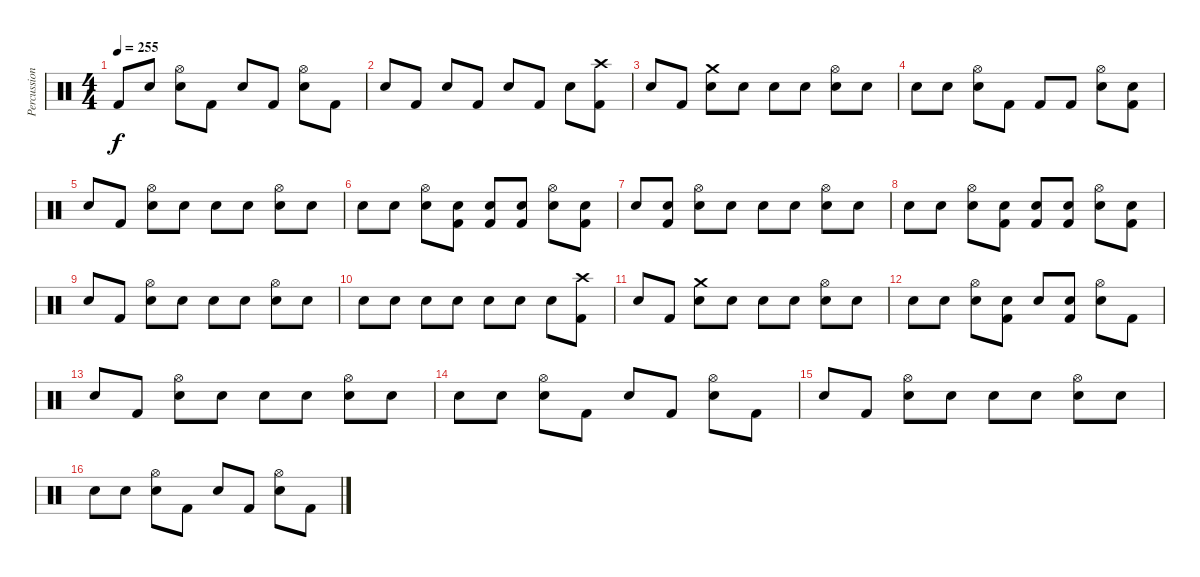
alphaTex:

\track ("Percussion" "Percussion") {instrument percussion}
\staff {score}
\articulation defaults
\ts (4 4)
\tempo 255
\clef neutral
\ks c "Kick (hit) 2".8{dy f} "Snare (hit)"{x}.8
("Snare (hit) 2" "Hi-Hat (open)").8 "Kick (hit) 2".8 "Snare (hit)"{x}.8 "Kick (hit) 2".8 ("Snare (hit) 2" "Hi-Hat (open)").8 "Kick (hit) 2".8 |
"Snare (hit) 2".8 "Kick (hit) 2".8 "Snare (hit) 2".8 "Kick (hit) 2".8 "Snare (hit) 2".8 "Kick (hit) 2".8 "Snare (hit) 2".8 ("Kick (hit) 2" "Crash high (hit)").8 |
"Snare (hit)"{x}.8 "Kick (hit) 2".8 ("Snare (hit) 2" "Crash medium (hit)").8 "Snare (hit)"{x}.8 "Snare (hit)"{x}.8 "Snare (hit)"{x}.8 ("Snare (hit) 2" "Hi-Hat (open)").8 "Snare (hit)"{x}.8 |
"Snare (hit)"{x}.8 "Snare (hit)"{x}.8 ("Snare (hit) 2" "Hi-Hat (open)").8 "Kick (hit) 2".8 "Kick (hit) 2"{x}.8 "Kick (hit) 2".8 ("Snare (hit) 2" "Hi-Hat (open)").8 ("Kick (hit) 2" "Snare (hit)"{x}).8 |
"Snare (hit)"{x}.8 "Kick (hit) 2".8 ("Snare (hit) 2" "Hi-Hat (open)").8 "Snare (hit)"{x}.8 "Snare (hit)"{x}.8 "Snare (hit)"{x}.8 ("Snare (hit) 2" "Hi-Hat (open)").8 "Snare (hit)"{x}.8 |
"Snare (hit)"{x}.8 "Snare (hit)"{x}.8 ("Snare (hit) 2" "Hi-Hat (open)").8 ("Kick (hit) 2" "Snare (hit)"{x}).8 ("Kick (hit) 2"{x} "Snare (hit)"{x}).8 ("Kick (hit) 2" "Snare (hit)"{x}).8 ("Snare (hit) 2" "Hi-Hat (open)").8 ("Kick (hit) 2" "Snare (hit)"{x}).8 |
"Snare (hit)"{x}.8 ("Kick (hit) 2" "Snare (hit)"{x}).8 ("Snare (hit) 2" "Hi-Hat (open)").8 "Snare (hit)"{x}.8 "Snare (hit)"{x}.8 "Snare (hit)"{x}.8 ("Snare (hit) 2" "Hi-Hat (open)").8 "Snare (hit)"{x}.8 |
"Snare (hit)"{x}.8 "Snare (hit)"{x}.8 ("Snare (hit) 2" "Hi-Hat (open)").8 ("Kick (hit) 2" "Snare (hit)"{x}).8 ("Kick (hit) 2"{x} "Snare (hit)"{x}).8 ("Kick (hit) 2" "Snare (hit)"{x}).8 ("Snare (hit) 2" "Hi-Hat (open)").8 ("Kick (hit) 2" "Snare (hit)"{x}).8 |
"Snare (hit)"{x}.8 "Kick (hit) 2".8 ("Snare (hit) 2" "Hi-Hat (open)").8 "Snare (hit) 2"{x}.8 "Snare (hit) 2"{x}.8 "Snare (hit) 2"{x}.8 ("Snare (hit) 2" "Hi-Hat (open)").8 "Snare (hit) 2".8 |
"Snare (hit) 2".8 "Snare (hit) 2".8 "Snare (hit) 2".8 "Snare (hit) 2".8 "Snare (hit) 2".8 "Snare (hit) 2".8 "Snare (hit) 2".8 ("Kick (hit) 2" "Crash high (hit)").8 |
"Snare (hit)"{x}.8 "Kick (hit) 2".8 ("Snare (hit) 2" "Crash medium (hit)").8 "Snare (hit)"{x}.8 "Snare (hit)"{x}.8 "Snare (hit)"{x}.8 ("Snare (hit) 2" "Hi-Hat (open)").8 "Snare (hit)"{x}.8 |
"Snare (hit)"{x}.8 "Snare (hit)"{x}.8 ("Snare (hit) 2" "Hi-Hat (open)").8 ("Kick (hit) 2" "Snare (hit)"{x}).8 "Snare (hit)"{x}.8 ("Kick (hit) 2" "Snare (hit)"{x}).8 ("Snare (hit) 2" "Hi-Hat (open)").8 "Kick (hit) 2".8 |
"Snare (hit)"{x}.8 "Kick (hit) 2".8 ("Snare (hit) 2" "Hi-Hat (open)").8 "Snare (hit)"{x}.8 "Snare (hit)"{x}.8 "Snare (hit)"{x}.8 ("Snare (hit) 2" "Hi-Hat (open)").8 "Snare (hit)"{x}.8 |
"Snare (hit)"{x}.8 "Snare (hit)"{x}.8 ("Snare (hit) 2" "Hi-Hat (open)").8 "Kick (hit) 2".8 "Snare (hit)"{x}.8 "Kick (hit) 2".8 ("Snare (hit) 2" "Hi-Hat (open)").8 "Kick (hit) 2".8 |
"Snare (hit)"{x}.8 "Kick (hit) 2".8 ("Snare (hit) 2" "Hi-Hat (open)").8 "Snare (hit)"{x}.8 "Snare (hit)"{x}.8 "Snare (hit)"{x}.8 ("Snare (hit) 2" "Hi-Hat (open)").8 "Snare (hit)"{x}.8 |
"Snare (hit)"{x}.8 "Snare (hit)"{x}.8 ("Snare (hit) 2" "Hi-Hat (open)").8 "Kick (hit) 2".8 "Snare (hit)"{x}.8 "Kick (hit) 2".8 ("Snare (hit) 2" "Hi-Hat (open)").8 "Kick (hit) 2".8
